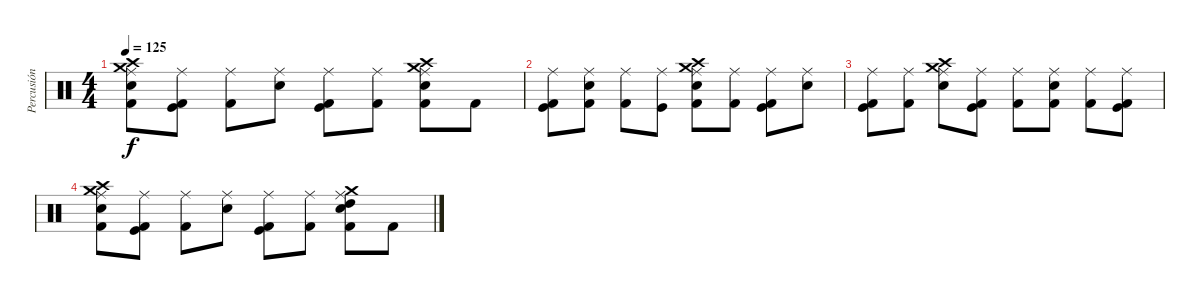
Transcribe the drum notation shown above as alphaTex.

\track ("Percusión" "Percusión") {instrument percussion}
\staff {score}
\articulation defaults
\ts (4 4)
\tempo 125
\clef neutral
\ks c
("Ride (middle)" "Crash medium (hit)" "Snare (hit) 2" "Kick (hit) 2" "Crash high (hit)").8{dy f} ("Ride (middle)" "Kick (hit)" "Kick (hit) 2").8 ("Ride (middle)" "Kick (hit) 2").8 ("Ride (middle)" "Snare (hit) 2").8 ("Ride (middle)" "Kick (hit)" "Kick (hit) 2").8 ("Ride (middle)" "Kick (hit) 2").8 ("Ride (middle)" "Crash medium (hit)" "Snare (hit) 2" "Kick (hit) 2" "Crash high (hit)").8 "Kick (hit) 2".8 |
("Ride (middle)" "Kick (hit)" "Kick (hit) 2").8 ("Ride (middle)" "Snare (hit) 2" "Kick (hit) 2").8 ("Ride (middle)" "Kick (hit) 2").8 ("Ride (middle)" "Kick (hit)").8 ("Ride (middle)" "Crash high (hit)" "Snare (hit) 2" "Kick (hit) 2" "Crash medium (hit)").8 ("Ride (middle)" "Kick (hit) 2").8 ("Ride (middle)" "Kick (hit)" "Kick (hit) 2").8 ("Ride (middle)" "Snare (hit) 2").8 |
("Ride (middle)" "Kick (hit)" "Kick (hit) 2").8 ("Ride (middle)" "Kick (hit) 2").8 ("Ride (middle)" "Crash medium (hit)" "Snare (hit) 2" "Crash high (hit)").8 ("Ride (middle)" "Kick (hit)" "Kick (hit) 2").8 ("Ride (middle)" "Kick (hit) 2").8 ("Ride (middle)" "Snare (hit) 2" "Kick (hit) 2").8 ("Ride (middle)" "Kick (hit) 2").8 ("Ride (middle)" "Kick (hit)" "Kick (hit) 2").8 |
("Ride (middle)" "Crash medium (hit)" "Snare (hit) 2" "Kick (hit) 2" "Crash high (hit)").8 ("Ride (middle)" "Kick (hit)" "Kick (hit) 2").8 ("Ride (middle)" "Kick (hit) 2").8 ("Ride (middle)" "Snare (hit) 2").8 ("Ride (middle)" "Kick (hit)" "Kick (hit) 2").8 ("Ride (middle)" "Kick (hit) 2").8 ("Ride (middle)" "Crash medium (hit)" "Snare (hit) 2" "Kick (hit) 2" "High Tom (hit)").8 "Kick (hit) 2".8
